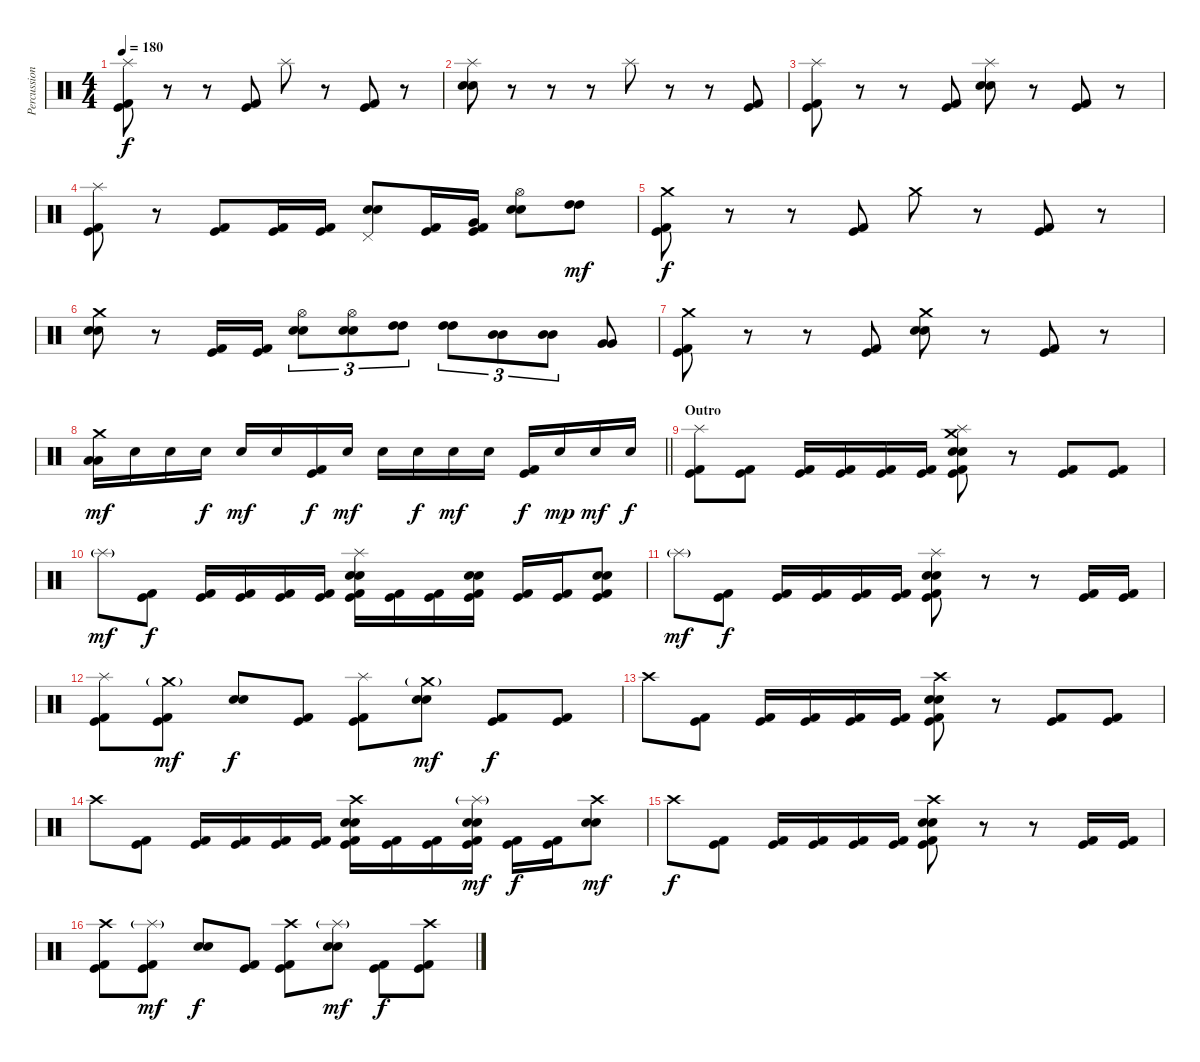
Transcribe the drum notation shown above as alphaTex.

\track ("Percussion" "Percussion") {instrument percussion}
\staff {score}
\articulation defaults
\ts (4 4)
\tempo 180
\clef neutral
\ks c
("Splash (hit)" "Kick (hit) 2" "Kick (hit)").8{dy f} r.8 r.8 ("Kick (hit) 2" "Kick (hit)").8 "Splash (hit)".8 r.8 ("Kick (hit) 2" "Kick (hit)").8 r.8 |
("Splash (hit)" "Electric Snare (hit)" "Electric Snare (hit)").8 r.8 r.8 r.8 "Splash (hit)".8 r.8 r.8 ("Kick (hit) 2" "Kick (hit)").8 |
("Splash (hit)" "Kick (hit) 2" "Kick (hit)").8 r.8 r.8 ("Kick (hit) 2" "Kick (hit)").8 ("Splash (hit)" "Electric Snare (hit)" "Electric Snare (hit)").8 r.8 ("Kick (hit) 2" "Kick (hit)").8 r.8 |
("Splash (hit)" "Kick (hit) 2" "Kick (hit)").8 r.8 ("Kick (hit) 2" "Kick (hit)").8 ("Kick (hit) 2" "Kick (hit)").16 ("Kick (hit) 2" "Kick (hit)").16 ("Pedal Hi-Hat (hit)" "Electric Snare (hit)" "Electric Snare (hit)").8 ("Kick (hit) 2" "Kick (hit)").16 ("Very Low Tom (hit)" "Kick (hit) 2" "Kick (hit)").16 ("Hi-Hat (open)" "Electric Snare (hit)" "Electric Snare (hit)").8 ("High Tom (hit)" "High Tom (hit)").8{dy mf} |
("Crash medium (hit)" "Kick (hit) 2" "Kick (hit)").8{dy f} r.8 r.8 ("Kick (hit) 2" "Kick (hit)").8 "Crash medium (hit)".8 r.8 ("Kick (hit) 2" "Kick (hit)").8 r.8 |
("Crash medium (hit)" "Electric Snare (hit)" "Electric Snare (hit)").8 r.8 ("Kick (hit) 2" "Kick (hit)").16 ("Kick (hit) 2" "Kick (hit)").16 ("Hi-Hat (open)" "Electric Snare (hit)" "Electric Snare (hit)").8{tu (3 2)} ("Hi-Hat (open)" "Electric Snare (hit)" "Electric Snare (hit)").8{tu (3 2)} ("High Tom (hit)" "High Tom (hit)").8{tu (3 2)} ("High Tom (hit)" "High Tom (hit)").8{tu (3 2)} ("Mid Tom (hit)" "Mid Tom (hit)").8{tu (3 2)} ("Mid Tom (hit)" "Mid Tom (hit)").8{tu (3 2)} ("Very Low Tom (hit)" "Very Low Tom (hit)").8 |
("Crash medium (hit)" "Kick (hit) 2" "Kick (hit)").8 r.8 r.8 ("Kick (hit) 2" "Kick (hit)").8 ("Crash medium (hit)" "Electric Snare (hit)" "Electric Snare (hit)").8 r.8 ("Kick (hit) 2" "Kick (hit)").8 r.8 |
\barLineRight lightlight
("Crash medium (hit)" "Low Tom (hit)" "Low Tom (hit)").16{dy mf} "Electric Snare (hit)".16 "Electric Snare (hit)".16 "Electric Snare (hit)".16{dy f} "Electric Snare (hit)".16{dy mf} "Electric Snare (hit)".16 ("Kick (hit) 2" "Kick (hit)").16{dy f} "Electric Snare (hit)".16{dy mf} "Electric Snare (hit)".16 "Electric Snare (hit)".16{dy f} "Electric Snare (hit)".16{dy mf} "Electric Snare (hit)".16 ("Kick (hit) 2" "Kick (hit)").16{dy f} "Electric Snare (hit)".16{dy mp} "Electric Snare (hit)".16{dy mf} "Electric Snare (hit)".16{dy f} |
\section ("" "Outro")
("Splash (hit)" "Kick (hit) 2" "Kick (hit)").8 ("Kick (hit) 2" "Kick (hit)").8 ("Kick (hit) 2" "Kick (hit)").16 ("Kick (hit) 2" "Kick (hit)").16 ("Kick (hit) 2" "Kick (hit)").16 ("Kick (hit) 2" "Kick (hit)").16 ("Splash (hit)" "Crash medium (hit)" "Electric Snare (hit)" "Electric Snare (hit)" "Kick (hit) 2" "Kick (hit)").8 r.8 ("Kick (hit) 2" "Kick (hit)").8 ("Kick (hit) 2" "Kick (hit)").8 |
"Splash (hit)"{g}.8{dy mf} ("Kick (hit) 2" "Kick (hit)").8{dy f} ("Kick (hit) 2" "Kick (hit)").16 ("Kick (hit) 2" "Kick (hit)").16 ("Kick (hit) 2" "Kick (hit)").16 ("Kick (hit) 2" "Kick (hit)").16 ("Splash (hit)" "Electric Snare (hit)" "Electric Snare (hit)" "Kick (hit) 2" "Kick (hit)").16 ("Kick (hit) 2" "Kick (hit)").16 ("Kick (hit) 2" "Kick (hit)").16 ("Electric Snare (hit)" "Electric Snare (hit)" "Kick (hit) 2" "Kick (hit)").16 ("Kick (hit) 2" "Kick (hit)").16 ("Kick (hit) 2" "Kick (hit)").16 ("Electric Snare (hit)" "Electric Snare (hit)" "Kick (hit) 2" "Kick (hit)").8 |
"Splash (hit)"{g}.8{dy mf} ("Kick (hit) 2" "Kick (hit)").8{dy f} ("Kick (hit) 2" "Kick (hit)").16 ("Kick (hit) 2" "Kick (hit)").16 ("Kick (hit) 2" "Kick (hit)").16 ("Kick (hit) 2" "Kick (hit)").16 ("Splash (hit)" "Electric Snare (hit)" "Electric Snare (hit)" "Kick (hit) 2" "Kick (hit)").8 r.8 r.8 ("Kick (hit) 2" "Kick (hit)").16 ("Kick (hit) 2" "Kick (hit)").16 |
("Splash (hit)" "Kick (hit) 2" "Kick (hit)").8 ("Crash medium (hit)"{g} "Kick (hit) 2" "Kick (hit)").8{dy mf} ("Electric Snare (hit)" "Electric Snare (hit)").8{dy f} ("Kick (hit) 2" "Kick (hit)").8 ("Splash (hit)" "Kick (hit) 2" "Kick (hit)").8 ("Crash medium (hit)"{g} "Electric Snare (hit)" "Electric Snare (hit)").8{dy mf} ("Kick (hit) 2" "Kick (hit)").8{dy f} ("Kick (hit) 2" "Kick (hit)").8 |
"Crash high (hit)".8 ("Kick (hit) 2" "Kick (hit)").8 ("Kick (hit) 2" "Kick (hit)").16 ("Kick (hit) 2" "Kick (hit)").16 ("Kick (hit) 2" "Kick (hit)").16 ("Kick (hit) 2" "Kick (hit)").16 ("Crash high (hit)" "Electric Snare (hit)" "Electric Snare (hit)" "Kick (hit) 2" "Kick (hit)").8 r.8 ("Kick (hit) 2" "Kick (hit)").8 ("Kick (hit) 2" "Kick (hit)").8 |
"Crash high (hit)".8 ("Kick (hit) 2" "Kick (hit)").8 ("Kick (hit) 2" "Kick (hit)").16 ("Kick (hit) 2" "Kick (hit)").16 ("Kick (hit) 2" "Kick (hit)").16 ("Kick (hit) 2" "Kick (hit)").16 ("Crash high (hit)" "Electric Snare (hit)" "Electric Snare (hit)" "Kick (hit) 2" "Kick (hit)").16 ("Kick (hit) 2" "Kick (hit)").16 ("Kick (hit) 2" "Kick (hit)").16 ("Splash (hit)"{g} "Electric Snare (hit)" "Electric Snare (hit)" "Kick (hit) 2" "Kick (hit)").16{dy mf} ("Kick (hit) 2" "Kick (hit)").16{dy f} ("Kick (hit) 2" "Kick (hit)").16 ("Crash high (hit)" "Electric Snare (hit)" "Electric Snare (hit)").8{dy mf} |
"Crash high (hit)".8{dy f} ("Kick (hit) 2" "Kick (hit)").8 ("Kick (hit) 2" "Kick (hit)").16 ("Kick (hit) 2" "Kick (hit)").16 ("Kick (hit) 2" "Kick (hit)").16 ("Kick (hit) 2" "Kick (hit)").16 ("Crash high (hit)" "Electric Snare (hit)" "Electric Snare (hit)" "Kick (hit) 2" "Kick (hit)").8 r.8 r.8 ("Kick (hit) 2" "Kick (hit)").16 ("Kick (hit) 2" "Kick (hit)").16 |
("Crash high (hit)" "Kick (hit) 2" "Kick (hit)").8 ("Splash (hit)"{g} "Kick (hit) 2" "Kick (hit)").8{dy mf} ("Electric Snare (hit)" "Electric Snare (hit)").8{dy f} ("Kick (hit) 2" "Kick (hit)").8 ("Crash high (hit)" "Kick (hit) 2" "Kick (hit)").8 ("Splash (hit)"{g} "Electric Snare (hit)" "Electric Snare (hit)").8{dy mf} ("Kick (hit) 2" "Kick (hit)").8{dy f} ("Crash high (hit)" "Kick (hit) 2" "Kick (hit)").8
